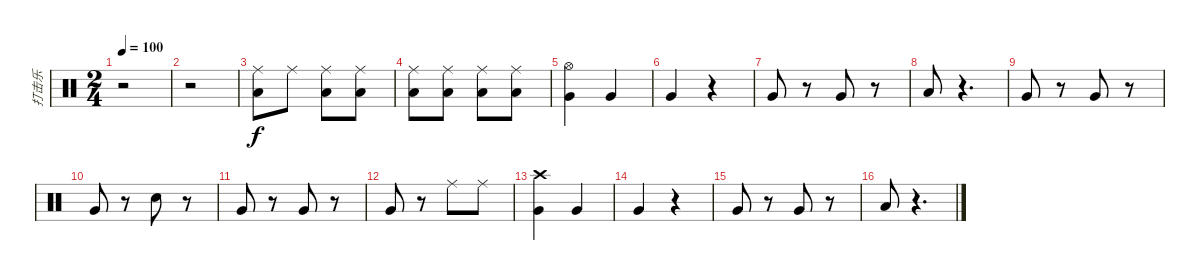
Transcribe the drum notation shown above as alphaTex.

\track ("打击乐" "打击乐") {instrument percussion}
\staff {score}
\articulation defaults
\ts (2 4)
\tempo 100
\clef neutral
\ks c
r.2{dy f} |
r.2 |
("Ride (middle)" "Low Floor Tom (hit)").8 "Ride (middle)".8 ("Ride (middle)" "Low Floor Tom (hit)").8 ("Ride (middle)" "Low Floor Tom (hit)").8 |
("Ride (middle)" "Low Floor Tom (hit)").8 ("Ride (middle)" "Low Floor Tom (hit)").8 ("Ride (middle)" "Low Floor Tom (hit)").8 ("Ride (middle)" "Low Floor Tom (hit)").8 |
("Hi-Hat (open)" "Very Low Tom (hit)").4 "Very Low Tom (hit)".4 |
"Very Low Tom (hit)".4 r.4 |
"Very Low Tom (hit)".8 r.8 "Very Low Tom (hit)".8 r.8 |
"Low Floor Tom (hit)".8 r.4{d} |
"Very Low Tom (hit)".8 r.8 "Very Low Tom (hit)".8 r.8 |
"Very Low Tom (hit)".8 r.8 "Electric Snare (hit)".8 r.8 |
"Very Low Tom (hit)".8 r.8 "Very Low Tom (hit)".8 r.8 |
"Very Low Tom (hit)".8 r.8 "Ride (middle)".8 "Ride (middle)".8 |
("Crash high (hit)" "Very Low Tom (hit)").4 "Very Low Tom (hit)".4 |
"Very Low Tom (hit)".4 r.4 |
"Very Low Tom (hit)".8 r.8 "Very Low Tom (hit)".8 r.8 |
"Low Floor Tom (hit)".8 r.4{d}
